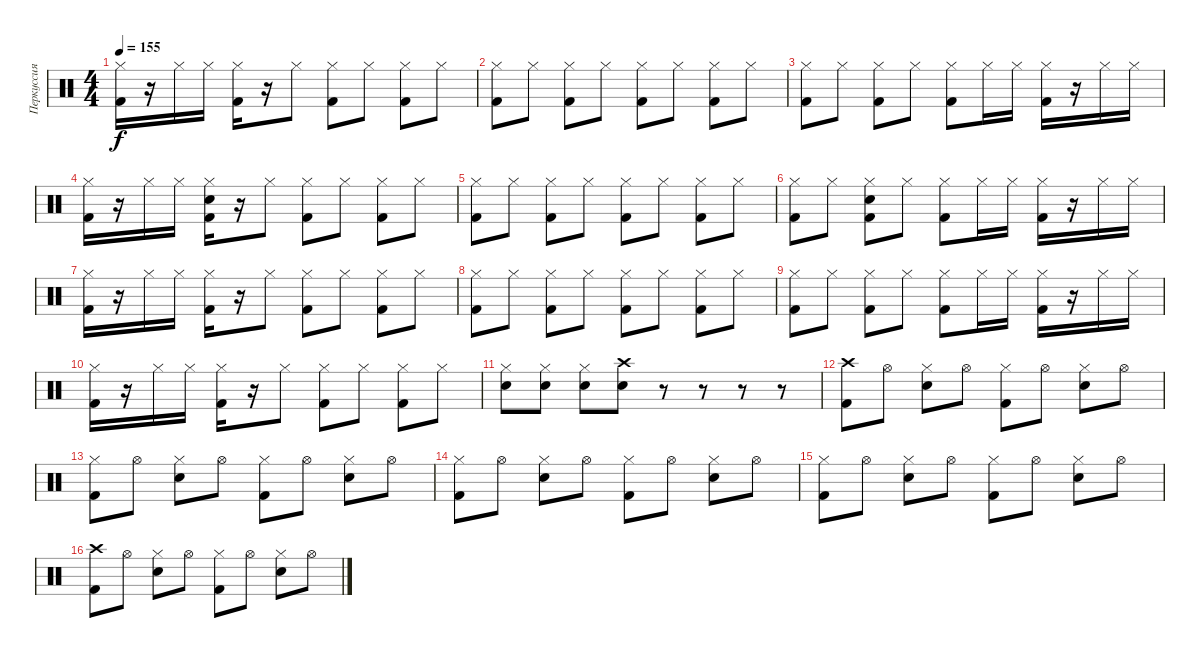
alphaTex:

\track ("Перкуссия" "Перкуссия") {instrument percussion}
\staff {score}
\articulation defaults
\ts (4 4)
\tempo 155
\clef neutral
\ks c
("Hi-Hat (closed)" "Kick (hit) 2").16{dy f} r.16 "Hi-Hat (closed)".16 "Hi-Hat (closed)".16 ("Hi-Hat (closed)" "Kick (hit) 2").16 r.16 "Hi-Hat (closed)".8 ("Hi-Hat (closed)" "Kick (hit) 2").8 "Hi-Hat (closed)".8 ("Hi-Hat (closed)" "Kick (hit) 2").8 "Hi-Hat (closed)".8 |
("Hi-Hat (closed)" "Kick (hit) 2").8 "Hi-Hat (closed)".8 ("Hi-Hat (closed)" "Kick (hit) 2").8 "Hi-Hat (closed)".8 ("Hi-Hat (closed)" "Kick (hit) 2").8 "Hi-Hat (closed)".8 ("Hi-Hat (closed)" "Kick (hit) 2").8 "Hi-Hat (closed)".8 |
("Hi-Hat (closed)" "Kick (hit) 2").8 "Hi-Hat (closed)".8 ("Hi-Hat (closed)" "Kick (hit) 2").8 "Hi-Hat (closed)".8 ("Hi-Hat (closed)" "Kick (hit) 2").8 "Hi-Hat (closed)".16 "Hi-Hat (closed)".16 ("Hi-Hat (closed)" "Kick (hit) 2").16 r.16 "Hi-Hat (closed)".16 "Hi-Hat (closed)".16 |
("Hi-Hat (closed)" "Kick (hit) 2").16 r.16 "Hi-Hat (closed)".16 "Hi-Hat (closed)".16 ("Hi-Hat (closed)" "Snare (hit) 2" "Kick (hit) 2").16 r.16 "Hi-Hat (closed)".8 ("Hi-Hat (closed)" "Kick (hit) 2").8 "Hi-Hat (closed)".8 ("Hi-Hat (closed)" "Kick (hit) 2").8 "Hi-Hat (closed)".8 |
("Hi-Hat (closed)" "Kick (hit) 2").8 "Hi-Hat (closed)".8 ("Hi-Hat (closed)" "Kick (hit) 2").8 "Hi-Hat (closed)".8 ("Hi-Hat (closed)" "Kick (hit) 2").8 "Hi-Hat (closed)".8 ("Hi-Hat (closed)" "Kick (hit) 2").8 "Hi-Hat (closed)".8 |
("Hi-Hat (closed)" "Kick (hit) 2").8 "Hi-Hat (closed)".8 ("Hi-Hat (closed)" "Snare (hit) 2" "Kick (hit) 2").8 "Hi-Hat (closed)".8 ("Hi-Hat (closed)" "Kick (hit) 2").8 "Hi-Hat (closed)".16 "Hi-Hat (closed)".16 ("Hi-Hat (closed)" "Kick (hit) 2").16 r.16 "Hi-Hat (closed)".16 "Hi-Hat (closed)".16 |
("Hi-Hat (closed)" "Kick (hit) 2").16 r.16 "Hi-Hat (closed)".16 "Hi-Hat (closed)".16 ("Hi-Hat (closed)" "Kick (hit) 2").16 r.16 "Hi-Hat (closed)".8 ("Hi-Hat (closed)" "Kick (hit) 2").8 "Hi-Hat (closed)".8 ("Hi-Hat (closed)" "Kick (hit) 2").8 "Hi-Hat (closed)".8 |
("Hi-Hat (closed)" "Kick (hit) 2").8 "Hi-Hat (closed)".8 ("Hi-Hat (closed)" "Kick (hit) 2").8 "Hi-Hat (closed)".8 ("Hi-Hat (closed)" "Kick (hit) 2").8 "Hi-Hat (closed)".8 ("Hi-Hat (closed)" "Kick (hit) 2").8 "Hi-Hat (closed)".8 |
("Hi-Hat (closed)" "Kick (hit) 2").8 "Hi-Hat (closed)".8 ("Hi-Hat (closed)" "Kick (hit) 2").8 "Hi-Hat (closed)".8 ("Hi-Hat (closed)" "Kick (hit) 2").8 "Hi-Hat (closed)".16 "Hi-Hat (closed)".16 ("Hi-Hat (closed)" "Kick (hit) 2").16 r.16 "Hi-Hat (closed)".16 "Hi-Hat (closed)".16 |
("Hi-Hat (closed)" "Kick (hit) 2").16 r.16 "Hi-Hat (closed)".16 "Hi-Hat (closed)".16 ("Hi-Hat (closed)" "Kick (hit) 2").16 r.16 "Hi-Hat (closed)".8 ("Hi-Hat (closed)" "Kick (hit) 2").8 "Hi-Hat (closed)".8 ("Hi-Hat (closed)" "Kick (hit) 2").8 "Hi-Hat (closed)".8 |
("Hi-Hat (closed)" "Snare (hit) 2").8 ("Hi-Hat (closed)" "Snare (hit) 2").8 ("Hi-Hat (closed)" "Snare (hit) 2").8 ("Crash high (hit)" "Snare (hit) 2").8 r.8 r.8 r.8 r.8 |
("Crash high (hit)" "Kick (hit) 2").8 "Hi-Hat (open)".8 ("Hi-Hat (closed)" "Snare (hit) 2").8 "Hi-Hat (open)".8 ("Hi-Hat (closed)" "Kick (hit) 2").8 "Hi-Hat (open)".8 ("Hi-Hat (closed)" "Snare (hit) 2").8 "Hi-Hat (open)".8 |
("Hi-Hat (closed)" "Kick (hit) 2").8 "Hi-Hat (open)".8 ("Hi-Hat (closed)" "Snare (hit) 2").8 "Hi-Hat (open)".8 ("Hi-Hat (closed)" "Kick (hit) 2").8 "Hi-Hat (open)".8 ("Hi-Hat (closed)" "Snare (hit) 2").8 "Hi-Hat (open)".8 |
("Hi-Hat (closed)" "Kick (hit) 2").8 "Hi-Hat (open)".8 ("Hi-Hat (closed)" "Snare (hit) 2").8 "Hi-Hat (open)".8 ("Hi-Hat (closed)" "Kick (hit) 2").8 "Hi-Hat (open)".8 ("Hi-Hat (closed)" "Snare (hit) 2").8 "Hi-Hat (open)".8 |
("Hi-Hat (closed)" "Kick (hit) 2").8 "Hi-Hat (open)".8 ("Hi-Hat (closed)" "Snare (hit) 2").8 "Hi-Hat (open)".8 ("Hi-Hat (closed)" "Kick (hit) 2").8 "Hi-Hat (open)".8 ("Hi-Hat (closed)" "Snare (hit) 2").8 "Hi-Hat (open)".8 |
("Crash high (hit)" "Kick (hit) 2").8 "Hi-Hat (open)".8 ("Hi-Hat (closed)" "Snare (hit) 2").8 "Hi-Hat (open)".8 ("Hi-Hat (closed)" "Kick (hit) 2").8 "Hi-Hat (open)".8 ("Hi-Hat (closed)" "Snare (hit) 2").8 "Hi-Hat (open)".8
